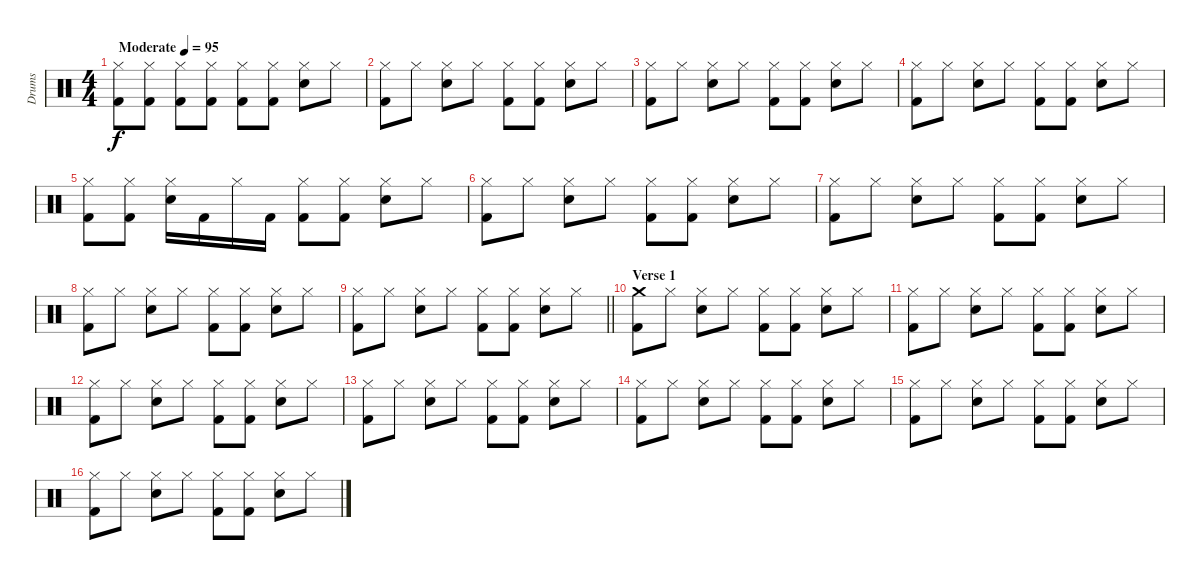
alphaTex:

\track ("Drums" "Drums") {instrument percussion}
\staff
\articulation defaults
\ts (4 4)
\tempo (95 "Moderate")
\clef neutral
\ks c
("Hi-Hat (closed)" "Kick (hit) 2").8{dy f} ("Hi-Hat (closed)" "Kick (hit) 2").8 ("Hi-Hat (closed)" "Kick (hit) 2").8 ("Hi-Hat (closed)" "Kick (hit) 2").8 ("Hi-Hat (closed)" "Kick (hit) 2").8 ("Hi-Hat (closed)" "Kick (hit) 2").8 ("Hi-Hat (closed)" "Electric Snare (hit)").8 "Hi-Hat (closed)".8 |
("Hi-Hat (closed)" "Kick (hit) 2").8 "Hi-Hat (closed)".8 ("Hi-Hat (closed)" "Electric Snare (hit)").8 "Hi-Hat (closed)".8 ("Hi-Hat (closed)" "Kick (hit) 2").8 ("Hi-Hat (closed)" "Kick (hit) 2").8 ("Hi-Hat (closed)" "Electric Snare (hit)").8 "Hi-Hat (closed)".8 |
("Hi-Hat (closed)" "Kick (hit) 2").8 "Hi-Hat (closed)".8 ("Hi-Hat (closed)" "Electric Snare (hit)").8 "Hi-Hat (closed)".8 ("Hi-Hat (closed)" "Kick (hit) 2").8 ("Hi-Hat (closed)" "Kick (hit) 2").8 ("Hi-Hat (closed)" "Electric Snare (hit)").8 "Hi-Hat (closed)".8 |
("Hi-Hat (closed)" "Kick (hit) 2").8 "Hi-Hat (closed)".8 ("Hi-Hat (closed)" "Electric Snare (hit)").8 "Hi-Hat (closed)".8 ("Hi-Hat (closed)" "Kick (hit) 2").8 ("Hi-Hat (closed)" "Kick (hit) 2").8 ("Hi-Hat (closed)" "Electric Snare (hit)").8 "Hi-Hat (closed)".8 |
("Hi-Hat (closed)" "Kick (hit) 2").8 ("Hi-Hat (closed)" "Kick (hit) 2").8 ("Hi-Hat (closed)" "Electric Snare (hit)").16 "Kick (hit) 2".16 "Hi-Hat (closed)".16 "Kick (hit) 2".16 ("Hi-Hat (closed)" "Kick (hit) 2").8 ("Hi-Hat (closed)" "Kick (hit) 2").8 ("Hi-Hat (closed)" "Electric Snare (hit)").8 "Hi-Hat (closed)".8 |
("Hi-Hat (closed)" "Kick (hit) 2").8 "Hi-Hat (closed)".8 ("Hi-Hat (closed)" "Electric Snare (hit)").8 "Hi-Hat (closed)".8 ("Hi-Hat (closed)" "Kick (hit) 2").8 ("Hi-Hat (closed)" "Kick (hit) 2").8 ("Hi-Hat (closed)" "Electric Snare (hit)").8 "Hi-Hat (closed)".8 |
("Hi-Hat (closed)" "Kick (hit) 2").8 "Hi-Hat (closed)".8 ("Hi-Hat (closed)" "Electric Snare (hit)").8 "Hi-Hat (closed)".8 ("Hi-Hat (closed)" "Kick (hit) 2").8 ("Hi-Hat (closed)" "Kick (hit) 2").8 ("Hi-Hat (closed)" "Electric Snare (hit)").8 "Hi-Hat (closed)".8 |
("Hi-Hat (closed)" "Kick (hit) 2").8 "Hi-Hat (closed)".8 ("Hi-Hat (closed)" "Electric Snare (hit)").8 "Hi-Hat (closed)".8 ("Hi-Hat (closed)" "Kick (hit) 2").8 ("Hi-Hat (closed)" "Kick (hit) 2").8 ("Hi-Hat (closed)" "Electric Snare (hit)").8 "Hi-Hat (closed)".8 |
\barLineRight lightlight
("Hi-Hat (closed)" "Kick (hit) 2").8 "Hi-Hat (closed)".8 ("Hi-Hat (closed)" "Electric Snare (hit)").8 "Hi-Hat (closed)".8 ("Hi-Hat (closed)" "Kick (hit) 2").8 ("Hi-Hat (closed)" "Kick (hit) 2").8 ("Hi-Hat (closed)" "Electric Snare (hit)").8 "Hi-Hat (closed)".8 |
\section ("" "Verse 1")
("Crash medium (hit)" "Kick (hit) 2").8 "Hi-Hat (closed)".8 ("Hi-Hat (closed)" "Electric Snare (hit)").8 "Hi-Hat (closed)".8 ("Hi-Hat (closed)" "Kick (hit) 2").8 ("Hi-Hat (closed)" "Kick (hit) 2").8 ("Hi-Hat (closed)" "Electric Snare (hit)").8 "Hi-Hat (closed)".8 |
("Hi-Hat (closed)" "Kick (hit) 2").8 "Hi-Hat (closed)".8 ("Hi-Hat (closed)" "Electric Snare (hit)").8 "Hi-Hat (closed)".8 ("Hi-Hat (closed)" "Kick (hit) 2").8 ("Hi-Hat (closed)" "Kick (hit) 2").8 ("Hi-Hat (closed)" "Electric Snare (hit)").8 "Hi-Hat (closed)".8 |
("Hi-Hat (closed)" "Kick (hit) 2").8 "Hi-Hat (closed)".8 ("Hi-Hat (closed)" "Electric Snare (hit)").8 "Hi-Hat (closed)".8 ("Hi-Hat (closed)" "Kick (hit) 2").8 ("Hi-Hat (closed)" "Kick (hit) 2").8 ("Hi-Hat (closed)" "Electric Snare (hit)").8 "Hi-Hat (closed)".8 |
("Hi-Hat (closed)" "Kick (hit) 2").8 "Hi-Hat (closed)".8 ("Hi-Hat (closed)" "Electric Snare (hit)").8 "Hi-Hat (closed)".8 ("Hi-Hat (closed)" "Kick (hit) 2").8 ("Hi-Hat (closed)" "Kick (hit) 2").8 ("Hi-Hat (closed)" "Electric Snare (hit)").8 "Hi-Hat (closed)".8 |
("Hi-Hat (closed)" "Kick (hit) 2").8 "Hi-Hat (closed)".8 ("Hi-Hat (closed)" "Electric Snare (hit)").8 "Hi-Hat (closed)".8 ("Hi-Hat (closed)" "Kick (hit) 2").8 ("Hi-Hat (closed)" "Kick (hit) 2").8 ("Hi-Hat (closed)" "Electric Snare (hit)").8 "Hi-Hat (closed)".8 |
("Hi-Hat (closed)" "Kick (hit) 2").8 "Hi-Hat (closed)".8 ("Hi-Hat (closed)" "Electric Snare (hit)").8 "Hi-Hat (closed)".8 ("Hi-Hat (closed)" "Kick (hit) 2").8 ("Hi-Hat (closed)" "Kick (hit) 2").8 ("Hi-Hat (closed)" "Electric Snare (hit)").8 "Hi-Hat (closed)".8 |
("Hi-Hat (closed)" "Kick (hit) 2").8 "Hi-Hat (closed)".8 ("Hi-Hat (closed)" "Electric Snare (hit)").8 "Hi-Hat (closed)".8 ("Hi-Hat (closed)" "Kick (hit) 2").8 ("Hi-Hat (closed)" "Kick (hit) 2").8 ("Hi-Hat (closed)" "Electric Snare (hit)").8 "Hi-Hat (closed)".8
